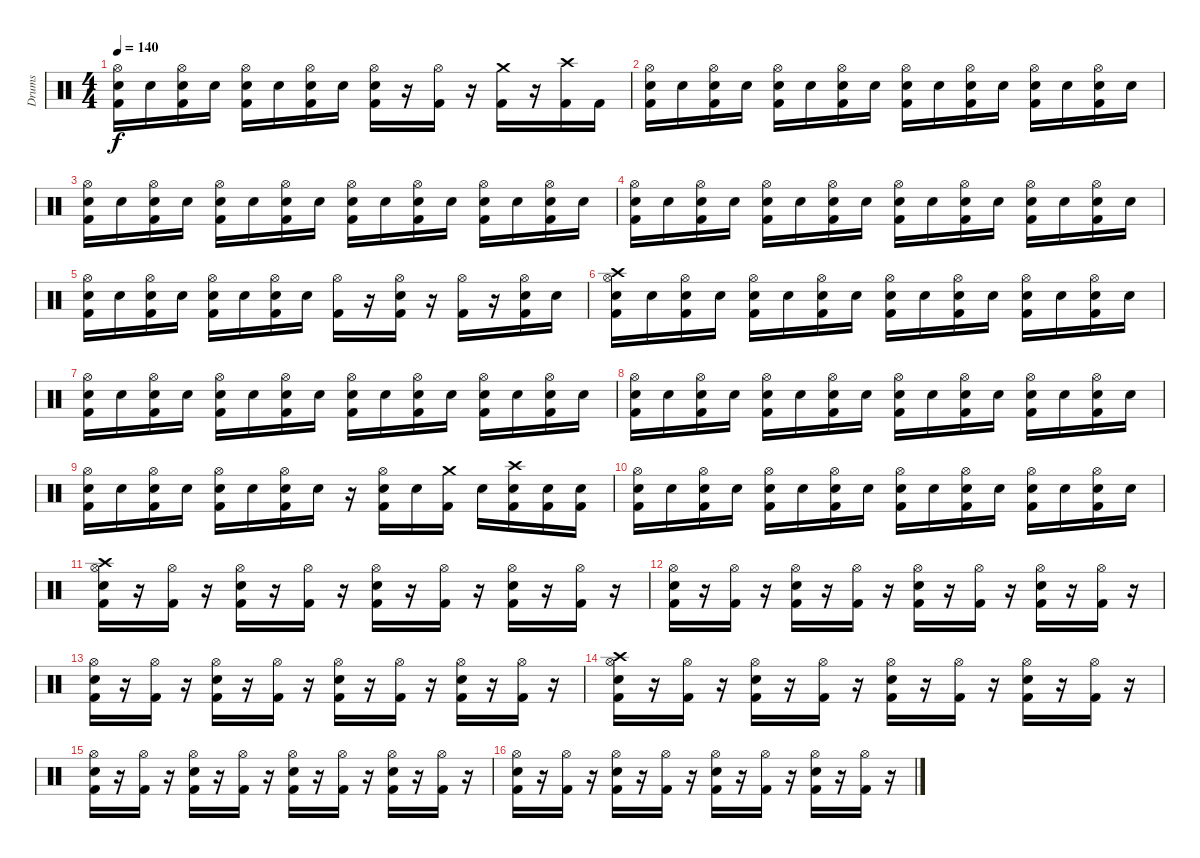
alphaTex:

\track ("Drums" "Drums") {instrument percussion}
\staff {score}
\articulation defaults
\ts (4 4)
\tempo 140
\clef neutral
\ks c
("Hi-Hat (open)" "Electric Snare (hit)" "Kick (hit) 2").16{dy f} "Electric Snare (hit)".16 ("Hi-Hat (open)" "Electric Snare (hit)" "Kick (hit) 2").16 "Electric Snare (hit)".16 ("Hi-Hat (open)" "Electric Snare (hit)" "Kick (hit) 2").16 "Electric Snare (hit)".16 ("Hi-Hat (open)" "Electric Snare (hit)" "Kick (hit) 2").16 "Electric Snare (hit)".16 ("Hi-Hat (open)" "Electric Snare (hit)" "Kick (hit) 2").16 r.16 ("Hi-Hat (open)" "Kick (hit) 2").16 r.16 ("Crash medium (hit)" "Kick (hit) 2").16 r.16 ("Crash high (hit)" "Kick (hit) 2").16 "Kick (hit) 2".16 |
("Hi-Hat (open)" "Electric Snare (hit)" "Kick (hit) 2").16 "Electric Snare (hit)".16 ("Hi-Hat (open)" "Electric Snare (hit)" "Kick (hit) 2").16 "Electric Snare (hit)".16 ("Hi-Hat (open)" "Electric Snare (hit)" "Kick (hit) 2").16 "Electric Snare (hit)".16 ("Hi-Hat (open)" "Electric Snare (hit)" "Kick (hit) 2").16 "Electric Snare (hit)".16 ("Hi-Hat (open)" "Electric Snare (hit)" "Kick (hit) 2").16 "Electric Snare (hit)".16 ("Hi-Hat (open)" "Electric Snare (hit)" "Kick (hit) 2").16 "Electric Snare (hit)".16 ("Hi-Hat (open)" "Electric Snare (hit)" "Kick (hit) 2").16 "Electric Snare (hit)".16 ("Hi-Hat (open)" "Electric Snare (hit)" "Kick (hit) 2").16 "Electric Snare (hit)".16 |
("Hi-Hat (open)" "Electric Snare (hit)" "Kick (hit) 2").16 "Electric Snare (hit)".16 ("Hi-Hat (open)" "Electric Snare (hit)" "Kick (hit) 2").16 "Electric Snare (hit)".16 ("Hi-Hat (open)" "Electric Snare (hit)" "Kick (hit) 2").16 "Electric Snare (hit)".16 ("Hi-Hat (open)" "Electric Snare (hit)" "Kick (hit) 2").16 "Electric Snare (hit)".16 ("Hi-Hat (open)" "Electric Snare (hit)" "Kick (hit) 2").16 "Electric Snare (hit)".16 ("Hi-Hat (open)" "Electric Snare (hit)" "Kick (hit) 2").16 "Electric Snare (hit)".16 ("Hi-Hat (open)" "Electric Snare (hit)" "Kick (hit) 2").16 "Electric Snare (hit)".16 ("Hi-Hat (open)" "Electric Snare (hit)" "Kick (hit) 2").16 "Electric Snare (hit)".16 |
("Hi-Hat (open)" "Electric Snare (hit)" "Kick (hit) 2").16 "Electric Snare (hit)".16 ("Hi-Hat (open)" "Electric Snare (hit)" "Kick (hit) 2").16 "Electric Snare (hit)".16 ("Hi-Hat (open)" "Electric Snare (hit)" "Kick (hit) 2").16 "Electric Snare (hit)".16 ("Hi-Hat (open)" "Electric Snare (hit)" "Kick (hit) 2").16 "Electric Snare (hit)".16 ("Hi-Hat (open)" "Electric Snare (hit)" "Kick (hit) 2").16 "Electric Snare (hit)".16 ("Hi-Hat (open)" "Electric Snare (hit)" "Kick (hit) 2").16 "Electric Snare (hit)".16 ("Hi-Hat (open)" "Electric Snare (hit)" "Kick (hit) 2").16 "Electric Snare (hit)".16 ("Hi-Hat (open)" "Electric Snare (hit)" "Kick (hit) 2").16 "Electric Snare (hit)".16 |
("Hi-Hat (open)" "Electric Snare (hit)" "Kick (hit) 2").16 "Electric Snare (hit)".16 ("Hi-Hat (open)" "Electric Snare (hit)" "Kick (hit) 2").16 "Electric Snare (hit)".16 ("Hi-Hat (open)" "Electric Snare (hit)" "Kick (hit) 2").16 "Electric Snare (hit)".16 ("Hi-Hat (open)" "Electric Snare (hit)" "Kick (hit) 2").16 "Electric Snare (hit)".16 ("Hi-Hat (open)" "Kick (hit) 2").16 r.16 ("Hi-Hat (open)" "Electric Snare (hit)" "Kick (hit) 2").16 r.16 ("Hi-Hat (open)" "Kick (hit) 2").16 r.16 ("Hi-Hat (open)" "Electric Snare (hit)" "Kick (hit) 2").16 "Electric Snare (hit)".16 |
("Hi-Hat (open)" "Electric Snare (hit)" "Crash high (hit)" "Kick (hit) 2").16 "Electric Snare (hit)".16 ("Hi-Hat (open)" "Electric Snare (hit)" "Kick (hit) 2").16 "Electric Snare (hit)".16 ("Hi-Hat (open)" "Electric Snare (hit)" "Kick (hit) 2").16 "Electric Snare (hit)".16 ("Hi-Hat (open)" "Electric Snare (hit)" "Kick (hit) 2").16 "Electric Snare (hit)".16 ("Hi-Hat (open)" "Electric Snare (hit)" "Kick (hit) 2").16 "Electric Snare (hit)".16 ("Hi-Hat (open)" "Electric Snare (hit)" "Kick (hit) 2").16 "Electric Snare (hit)".16 ("Hi-Hat (open)" "Electric Snare (hit)" "Kick (hit) 2").16 "Electric Snare (hit)".16 ("Hi-Hat (open)" "Electric Snare (hit)" "Kick (hit) 2").16 "Electric Snare (hit)".16 |
("Hi-Hat (open)" "Electric Snare (hit)" "Kick (hit) 2").16 "Electric Snare (hit)".16 ("Hi-Hat (open)" "Electric Snare (hit)" "Kick (hit) 2").16 "Electric Snare (hit)".16 ("Hi-Hat (open)" "Electric Snare (hit)" "Kick (hit) 2").16 "Electric Snare (hit)".16 ("Hi-Hat (open)" "Electric Snare (hit)" "Kick (hit) 2").16 "Electric Snare (hit)".16 ("Hi-Hat (open)" "Electric Snare (hit)" "Kick (hit) 2").16 "Electric Snare (hit)".16 ("Hi-Hat (open)" "Electric Snare (hit)" "Kick (hit) 2").16 "Electric Snare (hit)".16 ("Hi-Hat (open)" "Electric Snare (hit)" "Kick (hit) 2").16 "Electric Snare (hit)".16 ("Hi-Hat (open)" "Electric Snare (hit)" "Kick (hit) 2").16 "Electric Snare (hit)".16 |
("Hi-Hat (open)" "Electric Snare (hit)" "Kick (hit) 2").16 "Electric Snare (hit)".16 ("Hi-Hat (open)" "Electric Snare (hit)" "Kick (hit) 2").16 "Electric Snare (hit)".16 ("Hi-Hat (open)" "Electric Snare (hit)" "Kick (hit) 2").16 "Electric Snare (hit)".16 ("Hi-Hat (open)" "Electric Snare (hit)" "Kick (hit) 2").16 "Electric Snare (hit)".16 ("Hi-Hat (open)" "Electric Snare (hit)" "Kick (hit) 2").16 "Electric Snare (hit)".16 ("Hi-Hat (open)" "Electric Snare (hit)" "Kick (hit) 2").16 "Electric Snare (hit)".16 ("Hi-Hat (open)" "Electric Snare (hit)" "Kick (hit) 2").16 "Electric Snare (hit)".16 ("Hi-Hat (open)" "Electric Snare (hit)" "Kick (hit) 2").16 "Electric Snare (hit)".16 |
("Hi-Hat (open)" "Electric Snare (hit)" "Kick (hit) 2").16 "Electric Snare (hit)".16 ("Hi-Hat (open)" "Electric Snare (hit)" "Kick (hit) 2").16 "Electric Snare (hit)".16 ("Hi-Hat (open)" "Electric Snare (hit)" "Kick (hit) 2").16 "Electric Snare (hit)".16 ("Hi-Hat (open)" "Electric Snare (hit)" "Kick (hit) 2").16 "Electric Snare (hit)".16 r.16 ("Hi-Hat (open)" "Electric Snare (hit)" "Kick (hit) 2").16 "Electric Snare (hit)".16 ("Crash medium (hit)" "Kick (hit) 2").16 "Electric Snare (hit)".16 ("Crash high (hit)" "Electric Snare (hit)" "Kick (hit) 2").16 ("Electric Snare (hit)" "Kick (hit) 2").16 ("Electric Snare (hit)" "Kick (hit) 2").16 |
("Hi-Hat (open)" "Electric Snare (hit)" "Kick (hit) 2").16 "Electric Snare (hit)".16 ("Hi-Hat (open)" "Electric Snare (hit)" "Kick (hit) 2").16 "Electric Snare (hit)".16 ("Hi-Hat (open)" "Electric Snare (hit)" "Kick (hit) 2").16 "Electric Snare (hit)".16 ("Hi-Hat (open)" "Electric Snare (hit)" "Kick (hit) 2").16 "Electric Snare (hit)".16 ("Hi-Hat (open)" "Electric Snare (hit)" "Kick (hit) 2").16 "Electric Snare (hit)".16 ("Hi-Hat (open)" "Electric Snare (hit)" "Kick (hit) 2").16 "Electric Snare (hit)".16 ("Hi-Hat (open)" "Electric Snare (hit)" "Kick (hit) 2").16 "Electric Snare (hit)".16 ("Hi-Hat (open)" "Electric Snare (hit)" "Kick (hit) 2").16 "Electric Snare (hit)".16 |
("Hi-Hat (open)" "Electric Snare (hit)" "Crash high (hit)" "Kick (hit) 2").16 r.16 ("Hi-Hat (open)" "Kick (hit) 2").16 r.16 ("Hi-Hat (open)" "Electric Snare (hit)" "Kick (hit) 2").16 r.16 ("Hi-Hat (open)" "Kick (hit) 2").16 r.16 ("Hi-Hat (open)" "Electric Snare (hit)" "Kick (hit) 2").16 r.16 ("Hi-Hat (open)" "Kick (hit) 2").16 r.16 ("Hi-Hat (open)" "Electric Snare (hit)" "Kick (hit) 2").16 r.16 ("Hi-Hat (open)" "Kick (hit) 2").16 r.16 |
("Hi-Hat (open)" "Electric Snare (hit)" "Kick (hit) 2").16 r.16 ("Hi-Hat (open)" "Kick (hit) 2").16 r.16 ("Hi-Hat (open)" "Electric Snare (hit)" "Kick (hit) 2").16 r.16 ("Hi-Hat (open)" "Kick (hit) 2").16 r.16 ("Hi-Hat (open)" "Electric Snare (hit)" "Kick (hit) 2").16 r.16 ("Hi-Hat (open)" "Kick (hit) 2").16 r.16 ("Hi-Hat (open)" "Electric Snare (hit)" "Kick (hit) 2").16 r.16 ("Hi-Hat (open)" "Kick (hit) 2").16 r.16 |
("Hi-Hat (open)" "Electric Snare (hit)" "Kick (hit) 2").16 r.16 ("Hi-Hat (open)" "Kick (hit) 2").16 r.16 ("Hi-Hat (open)" "Electric Snare (hit)" "Kick (hit) 2").16 r.16 ("Hi-Hat (open)" "Kick (hit) 2").16 r.16 ("Hi-Hat (open)" "Electric Snare (hit)" "Kick (hit) 2").16 r.16 ("Hi-Hat (open)" "Kick (hit) 2").16 r.16 ("Hi-Hat (open)" "Electric Snare (hit)" "Kick (hit) 2").16 r.16 ("Hi-Hat (open)" "Kick (hit) 2").16 r.16 |
("Hi-Hat (open)" "Electric Snare (hit)" "Crash high (hit)" "Kick (hit) 2").16 r.16 ("Hi-Hat (open)" "Kick (hit) 2").16 r.16 ("Hi-Hat (open)" "Electric Snare (hit)" "Kick (hit) 2").16 r.16 ("Hi-Hat (open)" "Kick (hit) 2").16 r.16 ("Hi-Hat (open)" "Electric Snare (hit)" "Kick (hit) 2").16 r.16 ("Hi-Hat (open)" "Kick (hit) 2").16 r.16 ("Hi-Hat (open)" "Electric Snare (hit)" "Kick (hit) 2").16 r.16 ("Hi-Hat (open)" "Kick (hit) 2").16 r.16 |
("Hi-Hat (open)" "Electric Snare (hit)" "Kick (hit) 2").16 r.16 ("Hi-Hat (open)" "Kick (hit) 2").16 r.16 ("Hi-Hat (open)" "Electric Snare (hit)" "Kick (hit) 2").16 r.16 ("Hi-Hat (open)" "Kick (hit) 2").16 r.16 ("Hi-Hat (open)" "Electric Snare (hit)" "Kick (hit) 2").16 r.16 ("Hi-Hat (open)" "Kick (hit) 2").16 r.16 ("Hi-Hat (open)" "Electric Snare (hit)" "Kick (hit) 2").16 r.16 ("Hi-Hat (open)" "Kick (hit) 2").16 r.16 |
("Hi-Hat (open)" "Electric Snare (hit)" "Kick (hit) 2").16 r.16 ("Hi-Hat (open)" "Kick (hit) 2").16 r.16 ("Hi-Hat (open)" "Electric Snare (hit)" "Kick (hit) 2").16 r.16 ("Hi-Hat (open)" "Kick (hit) 2").16 r.16 ("Hi-Hat (open)" "Electric Snare (hit)" "Kick (hit) 2").16 r.16 ("Hi-Hat (open)" "Kick (hit) 2").16 r.16 ("Hi-Hat (open)" "Electric Snare (hit)" "Kick (hit) 2").16 r.16 ("Hi-Hat (open)" "Kick (hit) 2").16 r.16
